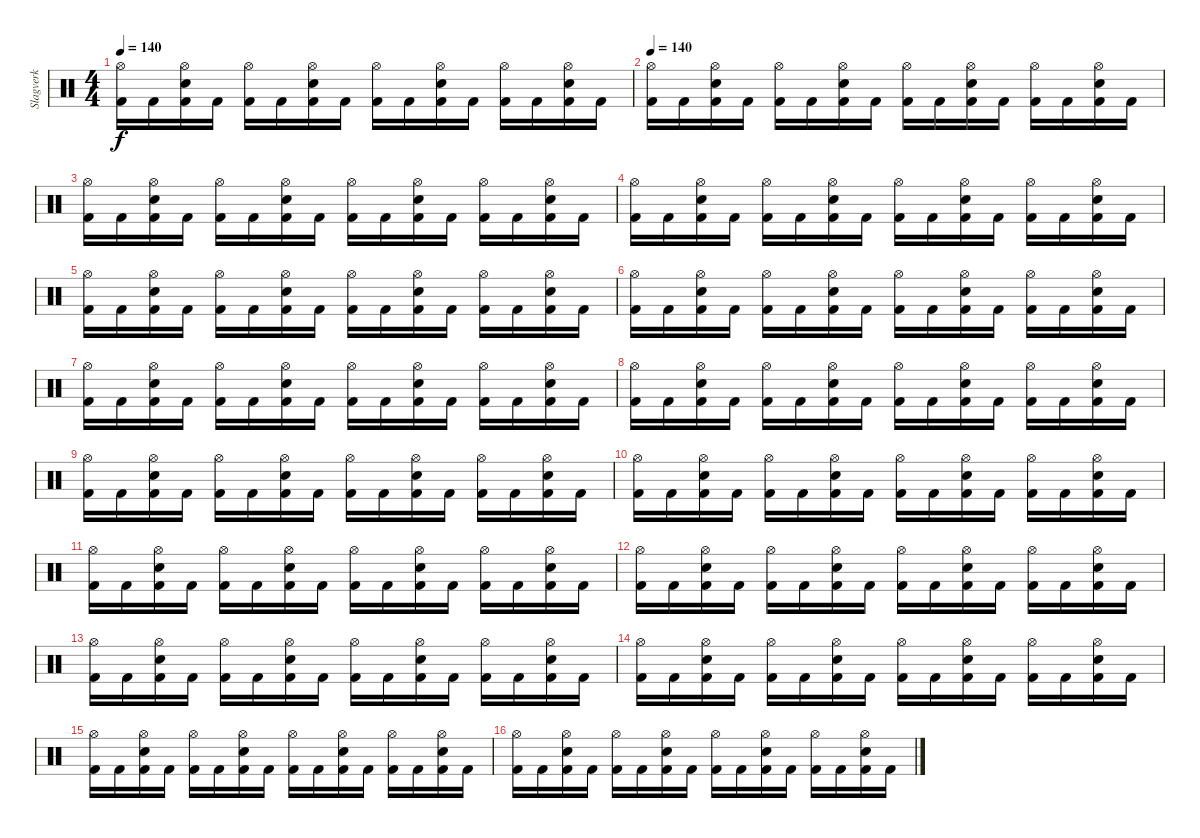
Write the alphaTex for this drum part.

\track ("Slagverk" "Slagverk") {instrument percussion}
\staff {score}
\articulation defaults
\ts (4 4)
\tempo 140
\clef neutral
\ks c
("Hi-Hat (open)" "Kick (hit) 2").16{dy f} "Kick (hit) 2".16 ("Hi-Hat (open)" "Electric Snare (hit)" "Kick (hit) 2").16 "Kick (hit) 2".16 ("Hi-Hat (open)" "Kick (hit) 2").16 "Kick (hit) 2".16 ("Hi-Hat (open)" "Electric Snare (hit)" "Kick (hit) 2").16 "Kick (hit) 2".16 ("Hi-Hat (open)" "Kick (hit) 2").16 "Kick (hit) 2".16 ("Hi-Hat (open)" "Electric Snare (hit)" "Kick (hit) 2").16 "Kick (hit) 2".16 ("Hi-Hat (open)" "Kick (hit) 2").16 "Kick (hit) 2".16 ("Hi-Hat (open)" "Electric Snare (hit)" "Kick (hit) 2").16 "Kick (hit) 2".16 |
\tempo 140
("Hi-Hat (open)" "Kick (hit) 2").16 "Kick (hit) 2".16 ("Hi-Hat (open)" "Electric Snare (hit)" "Kick (hit) 2").16 "Kick (hit) 2".16 ("Hi-Hat (open)" "Kick (hit) 2").16 "Kick (hit) 2".16 ("Hi-Hat (open)" "Electric Snare (hit)" "Kick (hit) 2").16 "Kick (hit) 2".16 ("Hi-Hat (open)" "Kick (hit) 2").16 "Kick (hit) 2".16 ("Hi-Hat (open)" "Electric Snare (hit)" "Kick (hit) 2").16 "Kick (hit) 2".16 ("Hi-Hat (open)" "Kick (hit) 2").16 "Kick (hit) 2".16 ("Hi-Hat (open)" "Electric Snare (hit)" "Kick (hit) 2").16 "Kick (hit) 2".16 |
("Hi-Hat (open)" "Kick (hit) 2").16 "Kick (hit) 2".16 ("Hi-Hat (open)" "Electric Snare (hit)" "Kick (hit) 2").16 "Kick (hit) 2".16 ("Hi-Hat (open)" "Kick (hit) 2").16 "Kick (hit) 2".16 ("Hi-Hat (open)" "Electric Snare (hit)" "Kick (hit) 2").16 "Kick (hit) 2".16 ("Hi-Hat (open)" "Kick (hit) 2").16 "Kick (hit) 2".16 ("Hi-Hat (open)" "Electric Snare (hit)" "Kick (hit) 2").16 "Kick (hit) 2".16 ("Hi-Hat (open)" "Kick (hit) 2").16 "Kick (hit) 2".16 ("Hi-Hat (open)" "Electric Snare (hit)" "Kick (hit) 2").16 "Kick (hit) 2".16 |
("Hi-Hat (open)" "Kick (hit) 2").16 "Kick (hit) 2".16 ("Hi-Hat (open)" "Electric Snare (hit)" "Kick (hit) 2").16 "Kick (hit) 2".16 ("Hi-Hat (open)" "Kick (hit) 2").16 "Kick (hit) 2".16 ("Hi-Hat (open)" "Electric Snare (hit)" "Kick (hit) 2").16 "Kick (hit) 2".16 ("Hi-Hat (open)" "Kick (hit) 2").16 "Kick (hit) 2".16 ("Hi-Hat (open)" "Electric Snare (hit)" "Kick (hit) 2").16 "Kick (hit) 2".16 ("Hi-Hat (open)" "Kick (hit) 2").16 "Kick (hit) 2".16 ("Hi-Hat (open)" "Electric Snare (hit)" "Kick (hit) 2").16 "Kick (hit) 2".16 |
("Hi-Hat (open)" "Kick (hit) 2").16 "Kick (hit) 2".16 ("Hi-Hat (open)" "Electric Snare (hit)" "Kick (hit) 2").16 "Kick (hit) 2".16 ("Hi-Hat (open)" "Kick (hit) 2").16 "Kick (hit) 2".16 ("Hi-Hat (open)" "Electric Snare (hit)" "Kick (hit) 2").16 "Kick (hit) 2".16 ("Hi-Hat (open)" "Kick (hit) 2").16 "Kick (hit) 2".16 ("Hi-Hat (open)" "Electric Snare (hit)" "Kick (hit) 2").16 "Kick (hit) 2".16 ("Hi-Hat (open)" "Kick (hit) 2").16 "Kick (hit) 2".16 ("Hi-Hat (open)" "Electric Snare (hit)" "Kick (hit) 2").16 "Kick (hit) 2".16 |
("Hi-Hat (open)" "Kick (hit) 2").16 "Kick (hit) 2".16 ("Hi-Hat (open)" "Electric Snare (hit)" "Kick (hit) 2").16 "Kick (hit) 2".16 ("Hi-Hat (open)" "Kick (hit) 2").16 "Kick (hit) 2".16 ("Hi-Hat (open)" "Electric Snare (hit)" "Kick (hit) 2").16 "Kick (hit) 2".16 ("Hi-Hat (open)" "Kick (hit) 2").16 "Kick (hit) 2".16 ("Hi-Hat (open)" "Electric Snare (hit)" "Kick (hit) 2").16 "Kick (hit) 2".16 ("Hi-Hat (open)" "Kick (hit) 2").16 "Kick (hit) 2".16 ("Hi-Hat (open)" "Electric Snare (hit)" "Kick (hit) 2").16 "Kick (hit) 2".16 |
("Hi-Hat (open)" "Kick (hit) 2").16 "Kick (hit) 2".16 ("Hi-Hat (open)" "Electric Snare (hit)" "Kick (hit) 2").16 "Kick (hit) 2".16 ("Hi-Hat (open)" "Kick (hit) 2").16 "Kick (hit) 2".16 ("Hi-Hat (open)" "Electric Snare (hit)" "Kick (hit) 2").16 "Kick (hit) 2".16 ("Hi-Hat (open)" "Kick (hit) 2").16 "Kick (hit) 2".16 ("Hi-Hat (open)" "Electric Snare (hit)" "Kick (hit) 2").16 "Kick (hit) 2".16 ("Hi-Hat (open)" "Kick (hit) 2").16 "Kick (hit) 2".16 ("Hi-Hat (open)" "Electric Snare (hit)" "Kick (hit) 2").16 "Kick (hit) 2".16 |
("Hi-Hat (open)" "Kick (hit) 2").16 "Kick (hit) 2".16 ("Hi-Hat (open)" "Electric Snare (hit)" "Kick (hit) 2").16 "Kick (hit) 2".16 ("Hi-Hat (open)" "Kick (hit) 2").16 "Kick (hit) 2".16 ("Hi-Hat (open)" "Electric Snare (hit)" "Kick (hit) 2").16 "Kick (hit) 2".16 ("Hi-Hat (open)" "Kick (hit) 2").16 "Kick (hit) 2".16 ("Hi-Hat (open)" "Electric Snare (hit)" "Kick (hit) 2").16 "Kick (hit) 2".16 ("Hi-Hat (open)" "Kick (hit) 2").16 "Kick (hit) 2".16 ("Hi-Hat (open)" "Electric Snare (hit)" "Kick (hit) 2").16 "Kick (hit) 2".16 |
("Hi-Hat (open)" "Kick (hit) 2").16 "Kick (hit) 2".16 ("Hi-Hat (open)" "Electric Snare (hit)" "Kick (hit) 2").16 "Kick (hit) 2".16 ("Hi-Hat (open)" "Kick (hit) 2").16 "Kick (hit) 2".16 ("Hi-Hat (open)" "Electric Snare (hit)" "Kick (hit) 2").16 "Kick (hit) 2".16 ("Hi-Hat (open)" "Kick (hit) 2").16 "Kick (hit) 2".16 ("Hi-Hat (open)" "Electric Snare (hit)" "Kick (hit) 2").16 "Kick (hit) 2".16 ("Hi-Hat (open)" "Kick (hit) 2").16 "Kick (hit) 2".16 ("Hi-Hat (open)" "Electric Snare (hit)" "Kick (hit) 2").16 "Kick (hit) 2".16 |
("Hi-Hat (open)" "Kick (hit) 2").16 "Kick (hit) 2".16 ("Hi-Hat (open)" "Electric Snare (hit)" "Kick (hit) 2").16 "Kick (hit) 2".16 ("Hi-Hat (open)" "Kick (hit) 2").16 "Kick (hit) 2".16 ("Hi-Hat (open)" "Electric Snare (hit)" "Kick (hit) 2").16 "Kick (hit) 2".16 ("Hi-Hat (open)" "Kick (hit) 2").16 "Kick (hit) 2".16 ("Hi-Hat (open)" "Electric Snare (hit)" "Kick (hit) 2").16 "Kick (hit) 2".16 ("Hi-Hat (open)" "Kick (hit) 2").16 "Kick (hit) 2".16 ("Hi-Hat (open)" "Electric Snare (hit)" "Kick (hit) 2").16 "Kick (hit) 2".16 |
("Hi-Hat (open)" "Kick (hit) 2").16 "Kick (hit) 2".16 ("Hi-Hat (open)" "Electric Snare (hit)" "Kick (hit) 2").16 "Kick (hit) 2".16 ("Hi-Hat (open)" "Kick (hit) 2").16 "Kick (hit) 2".16 ("Hi-Hat (open)" "Electric Snare (hit)" "Kick (hit) 2").16 "Kick (hit) 2".16 ("Hi-Hat (open)" "Kick (hit) 2").16 "Kick (hit) 2".16 ("Hi-Hat (open)" "Electric Snare (hit)" "Kick (hit) 2").16 "Kick (hit) 2".16 ("Hi-Hat (open)" "Kick (hit) 2").16 "Kick (hit) 2".16 ("Hi-Hat (open)" "Electric Snare (hit)" "Kick (hit) 2").16 "Kick (hit) 2".16 |
("Hi-Hat (open)" "Kick (hit) 2").16 "Kick (hit) 2".16 ("Hi-Hat (open)" "Electric Snare (hit)" "Kick (hit) 2").16 "Kick (hit) 2".16 ("Hi-Hat (open)" "Kick (hit) 2").16 "Kick (hit) 2".16 ("Hi-Hat (open)" "Electric Snare (hit)" "Kick (hit) 2").16 "Kick (hit) 2".16 ("Hi-Hat (open)" "Kick (hit) 2").16 "Kick (hit) 2".16 ("Hi-Hat (open)" "Electric Snare (hit)" "Kick (hit) 2").16 "Kick (hit) 2".16 ("Hi-Hat (open)" "Kick (hit) 2").16 "Kick (hit) 2".16 ("Hi-Hat (open)" "Electric Snare (hit)" "Kick (hit) 2").16 "Kick (hit) 2".16 |
("Hi-Hat (open)" "Kick (hit) 2").16 "Kick (hit) 2".16 ("Hi-Hat (open)" "Electric Snare (hit)" "Kick (hit) 2").16 "Kick (hit) 2".16 ("Hi-Hat (open)" "Kick (hit) 2").16 "Kick (hit) 2".16 ("Hi-Hat (open)" "Electric Snare (hit)" "Kick (hit) 2").16 "Kick (hit) 2".16 ("Hi-Hat (open)" "Kick (hit) 2").16 "Kick (hit) 2".16 ("Hi-Hat (open)" "Electric Snare (hit)" "Kick (hit) 2").16 "Kick (hit) 2".16 ("Hi-Hat (open)" "Kick (hit) 2").16 "Kick (hit) 2".16 ("Hi-Hat (open)" "Electric Snare (hit)" "Kick (hit) 2").16 "Kick (hit) 2".16 |
("Hi-Hat (open)" "Kick (hit) 2").16 "Kick (hit) 2".16 ("Hi-Hat (open)" "Electric Snare (hit)" "Kick (hit) 2").16 "Kick (hit) 2".16 ("Hi-Hat (open)" "Kick (hit) 2").16 "Kick (hit) 2".16 ("Hi-Hat (open)" "Electric Snare (hit)" "Kick (hit) 2").16 "Kick (hit) 2".16 ("Hi-Hat (open)" "Kick (hit) 2").16 "Kick (hit) 2".16 ("Hi-Hat (open)" "Electric Snare (hit)" "Kick (hit) 2").16 "Kick (hit) 2".16 ("Hi-Hat (open)" "Kick (hit) 2").16 "Kick (hit) 2".16 ("Hi-Hat (open)" "Electric Snare (hit)" "Kick (hit) 2").16 "Kick (hit) 2".16 |
("Hi-Hat (open)" "Kick (hit) 2").16 "Kick (hit) 2".16 ("Hi-Hat (open)" "Electric Snare (hit)" "Kick (hit) 2").16 "Kick (hit) 2".16 ("Hi-Hat (open)" "Kick (hit) 2").16 "Kick (hit) 2".16 ("Hi-Hat (open)" "Electric Snare (hit)" "Kick (hit) 2").16 "Kick (hit) 2".16 ("Hi-Hat (open)" "Kick (hit) 2").16 "Kick (hit) 2".16 ("Hi-Hat (open)" "Electric Snare (hit)" "Kick (hit) 2").16 "Kick (hit) 2".16 ("Hi-Hat (open)" "Kick (hit) 2").16 "Kick (hit) 2".16 ("Hi-Hat (open)" "Electric Snare (hit)" "Kick (hit) 2").16 "Kick (hit) 2".16 |
("Hi-Hat (open)" "Kick (hit) 2").16 "Kick (hit) 2".16 ("Hi-Hat (open)" "Electric Snare (hit)" "Kick (hit) 2").16 "Kick (hit) 2".16 ("Hi-Hat (open)" "Kick (hit) 2").16 "Kick (hit) 2".16 ("Hi-Hat (open)" "Electric Snare (hit)" "Kick (hit) 2").16 "Kick (hit) 2".16 ("Hi-Hat (open)" "Kick (hit) 2").16 "Kick (hit) 2".16 ("Hi-Hat (open)" "Electric Snare (hit)" "Kick (hit) 2").16 "Kick (hit) 2".16 ("Hi-Hat (open)" "Kick (hit) 2").16 "Kick (hit) 2".16 ("Hi-Hat (open)" "Electric Snare (hit)" "Kick (hit) 2").16 "Kick (hit) 2".16
